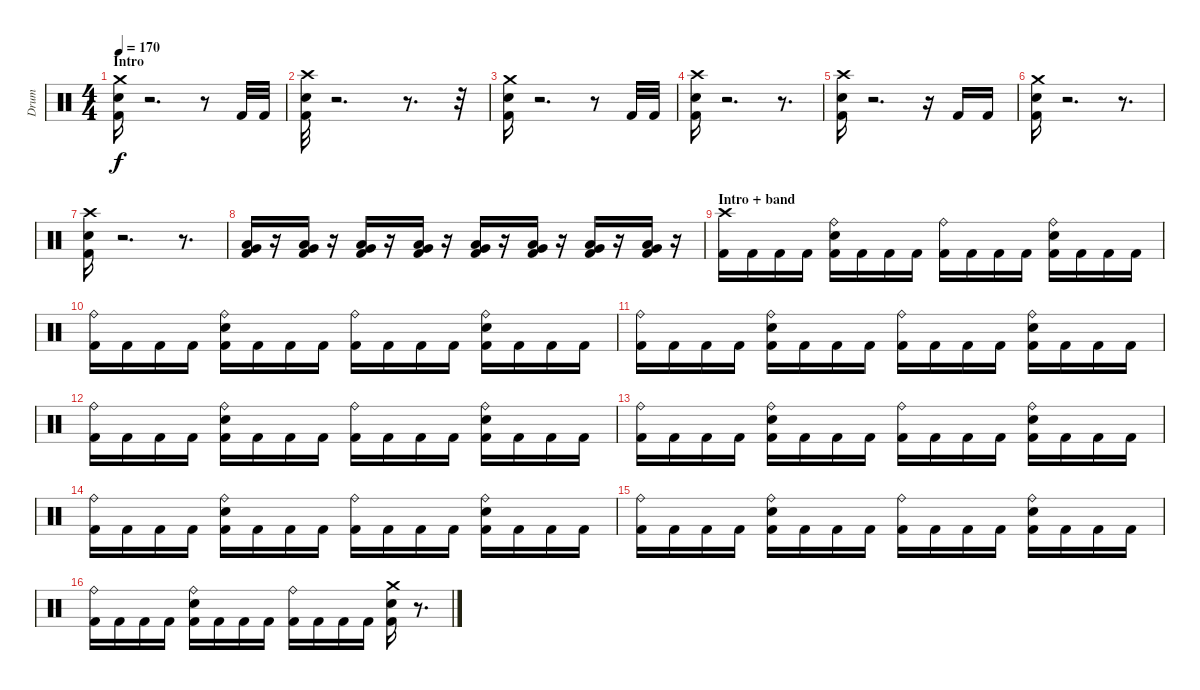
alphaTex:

\track ("Drum" "Drum") {instrument percussion}
\staff {score}
\articulation defaults
\ts (4 4)
\section ("" "Intro")
\tempo 170
\clef neutral
\ks c
("Kick (hit) 2" "Electric Snare (hit)" "Crash medium (hit)").16{dy f} r.2{d} r.8 "Kick (hit) 2".32 "Kick (hit) 2".32 |
("Electric Snare (hit)" "Kick (hit) 2" "Crash high (hit)").32 r.2{d} r.8{d} r.32 |
("Electric Snare (hit)" "Kick (hit) 2" "Crash medium (hit)").16 r.2{d} r.8 "Kick (hit) 2".32 "Kick (hit) 2".32 |
("Kick (hit) 2" "Electric Snare (hit)" "Crash high (hit)").16 r.2{d} r.8{d} |
("Electric Snare (hit)" "Kick (hit) 2" "Crash high (hit)").16 r.2{d} r.16 "Kick (hit) 2".16 "Kick (hit) 2".16 |
("Kick (hit) 2" "Electric Snare (hit)" "Crash medium (hit)").16 r.2{d} r.8{d} |
("Kick (hit) 2" "Electric Snare (hit)" "Crash high (hit)").16 r.2{d} r.8{d} |
("Kick (hit) 2" "Low Tom (hit)" "Very Low Tom (hit)").16 r.16 ("Kick (hit) 2" "Very Low Tom (hit)" "Low Tom (hit)").16 r.16 ("Kick (hit) 2" "Low Tom (hit)" "Very Low Tom (hit)").16 r.16 ("Kick (hit) 2" "Very Low Tom (hit)" "Low Tom (hit)").16 r.16 ("Kick (hit) 2" "Low Tom (hit)" "Very Low Tom (hit)").16 r.16 ("Kick (hit) 2" "Low Tom (hit)" "Very Low Tom (hit)").16 r.16 ("Kick (hit) 2" "Low Tom (hit)" "Very Low Tom (hit)").16 r.16 ("Kick (hit) 2" "Very Low Tom (hit)" "Low Tom (hit)").16 r.16 |
\section ("" "Intro + band")
("Kick (hit) 2" "Crash high (hit)").16 "Kick (hit) 2".16 "Kick (hit) 2".16 "Kick (hit) 2".16 ("Kick (hit) 2" "Electric Snare (hit)" "Ride (bell)").16 "Kick (hit) 2".16 "Kick (hit) 2".16 "Kick (hit) 2".16 ("Kick (hit) 2" "Ride (bell)").16 "Kick (hit) 2".16 "Kick (hit) 2".16 "Kick (hit) 2".16 ("Electric Snare (hit)" "Kick (hit) 2" "Ride (bell)").16 "Kick (hit) 2".16 "Kick (hit) 2".16 "Kick (hit) 2".16 |
("Kick (hit) 2" "Ride (bell)").16 "Kick (hit) 2".16 "Kick (hit) 2".16 "Kick (hit) 2".16 ("Kick (hit) 2" "Electric Snare (hit)" "Ride (bell)").16 "Kick (hit) 2".16 "Kick (hit) 2".16 "Kick (hit) 2".16 ("Kick (hit) 2" "Ride (bell)").16 "Kick (hit) 2".16 "Kick (hit) 2".16 "Kick (hit) 2".16 ("Electric Snare (hit)" "Kick (hit) 2" "Ride (bell)").16 "Kick (hit) 2".16 "Kick (hit) 2".16 "Kick (hit) 2".16 |
("Kick (hit) 2" "Ride (bell)").16 "Kick (hit) 2".16 "Kick (hit) 2".16 "Kick (hit) 2".16 ("Electric Snare (hit)" "Kick (hit) 2" "Ride (bell)").16 "Kick (hit) 2".16 "Kick (hit) 2".16 "Kick (hit) 2".16 ("Kick (hit) 2" "Ride (bell)").16 "Kick (hit) 2".16 "Kick (hit) 2".16 "Kick (hit) 2".16 ("Kick (hit) 2" "Electric Snare (hit)" "Ride (bell)").16 "Kick (hit) 2".16 "Kick (hit) 2".16 "Kick (hit) 2".16 |
("Kick (hit) 2" "Ride (bell)").16 "Kick (hit) 2".16 "Kick (hit) 2".16 "Kick (hit) 2".16 ("Kick (hit) 2" "Electric Snare (hit)" "Ride (bell)").16 "Kick (hit) 2".16 "Kick (hit) 2".16 "Kick (hit) 2".16 ("Kick (hit) 2" "Ride (bell)").16 "Kick (hit) 2".16 "Kick (hit) 2".16 "Kick (hit) 2".16 ("Electric Snare (hit)" "Kick (hit) 2" "Ride (bell)").16 "Kick (hit) 2".16 "Kick (hit) 2".16 "Kick (hit) 2".16 |
("Kick (hit) 2" "Ride (bell)").16 "Kick (hit) 2".16 "Kick (hit) 2".16 "Kick (hit) 2".16 ("Electric Snare (hit)" "Kick (hit) 2" "Ride (bell)").16 "Kick (hit) 2".16 "Kick (hit) 2".16 "Kick (hit) 2".16 ("Kick (hit) 2" "Ride (bell)").16 "Kick (hit) 2".16 "Kick (hit) 2".16 "Kick (hit) 2".16 ("Electric Snare (hit)" "Kick (hit) 2" "Ride (bell)").16 "Kick (hit) 2".16 "Kick (hit) 2".16 "Kick (hit) 2".16 |
("Kick (hit) 2" "Ride (bell)").16 "Kick (hit) 2".16 "Kick (hit) 2".16 "Kick (hit) 2".16 ("Electric Snare (hit)" "Kick (hit) 2" "Ride (bell)").16 "Kick (hit) 2".16 "Kick (hit) 2".16 "Kick (hit) 2".16 ("Kick (hit) 2" "Ride (bell)").16 "Kick (hit) 2".16 "Kick (hit) 2".16 "Kick (hit) 2".16 ("Electric Snare (hit)" "Kick (hit) 2" "Ride (bell)").16 "Kick (hit) 2".16 "Kick (hit) 2".16 "Kick (hit) 2".16 |
("Kick (hit) 2" "Ride (bell)").16 "Kick (hit) 2".16 "Kick (hit) 2".16 "Kick (hit) 2".16 ("Electric Snare (hit)" "Kick (hit) 2" "Ride (bell)").16 "Kick (hit) 2".16 "Kick (hit) 2".16 "Kick (hit) 2".16 ("Kick (hit) 2" "Ride (bell)").16 "Kick (hit) 2".16 "Kick (hit) 2".16 "Kick (hit) 2".16 ("Electric Snare (hit)" "Kick (hit) 2" "Ride (bell)").16 "Kick (hit) 2".16 "Kick (hit) 2".16 "Kick (hit) 2".16 |
("Kick (hit) 2" "Ride (bell)").16 "Kick (hit) 2".16 "Kick (hit) 2".16 "Kick (hit) 2".16 ("Kick (hit) 2" "Electric Snare (hit)" "Ride (bell)").16 "Kick (hit) 2".16 "Kick (hit) 2".16 "Kick (hit) 2".16 ("Kick (hit) 2" "Ride (bell)").16 "Kick (hit) 2".16 "Kick (hit) 2".16 "Kick (hit) 2".16 ("Electric Snare (hit)" "Kick (hit) 2" "Crash medium (hit)").16 r.8{d}
